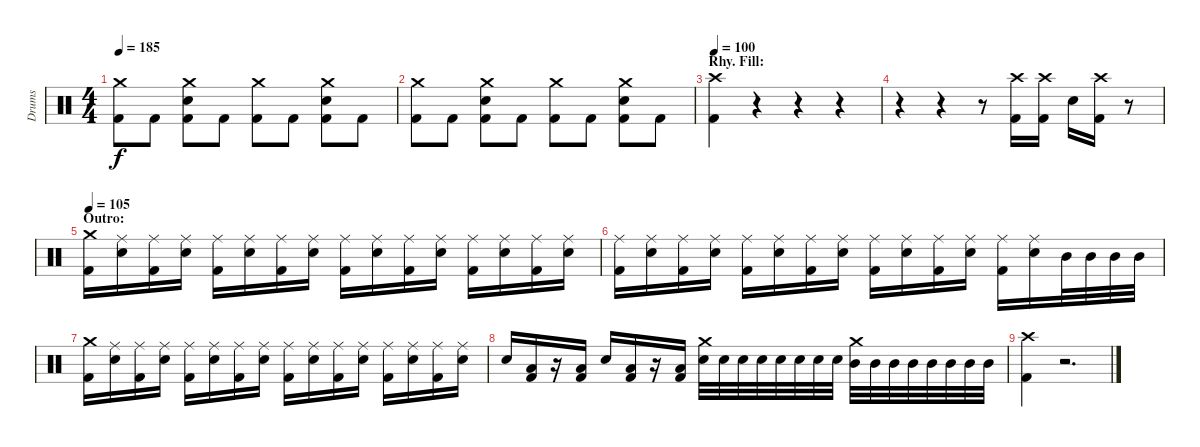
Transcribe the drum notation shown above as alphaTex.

\track ("Drums" "Drums") {instrument percussion}
\staff {score}
\articulation defaults
\ts (4 4)
\tempo 185
\clef neutral
\ks c
("Crash medium (hit)" "Kick (hit) 2").8{dy f} "Kick (hit) 2".8 ("Crash medium (hit)" "Electric Snare (hit)" "Kick (hit) 2").8 "Kick (hit) 2".8 ("Crash medium (hit)" "Kick (hit) 2").8 "Kick (hit) 2".8 ("Crash medium (hit)" "Electric Snare (hit)" "Kick (hit) 2").8 "Kick (hit) 2".8 |
("Crash medium (hit)" "Kick (hit) 2").8 "Kick (hit) 2".8 ("Crash medium (hit)" "Electric Snare (hit)" "Kick (hit) 2").8 "Kick (hit) 2".8 ("Crash medium (hit)" "Kick (hit) 2").8 "Kick (hit) 2".8 ("Crash medium (hit)" "Electric Snare (hit)" "Kick (hit) 2").8 "Kick (hit) 2".8 |
\section ("" "Rhy. Fill:")
\tempo 100
("Crash high (hit)" "Kick (hit) 2").4 r.4 r.4 r.4 |
r.4 r.4 r.8 ("Crash high (hit)" "Kick (hit) 2").16 ("Crash high (hit)" "Kick (hit) 2").16 "Electric Snare (hit)".16 ("Crash high (hit)" "Kick (hit) 2").16 r.8 |
\section ("" "Outro:")
\tempo 105
("Crash medium (hit)" "Kick (hit) 2").16 ("Ride (middle)" "Electric Snare (hit)").16 ("Ride (middle)" "Kick (hit) 2").16 ("Ride (middle)" "Electric Snare (hit)").16 ("Ride (middle)" "Kick (hit) 2").16 ("Ride (middle)" "Electric Snare (hit)").16 ("Ride (middle)" "Kick (hit) 2").16 ("Ride (middle)" "Electric Snare (hit)").16 ("Ride (middle)" "Kick (hit) 2").16 ("Ride (middle)" "Electric Snare (hit)").16 ("Ride (middle)" "Kick (hit) 2").16 ("Ride (middle)" "Electric Snare (hit)").16 ("Ride (middle)" "Kick (hit) 2").16 ("Ride (middle)" "Electric Snare (hit)").16 ("Ride (middle)" "Kick (hit) 2").16 ("Ride (middle)" "Electric Snare (hit)").16 |
("Ride (middle)" "Kick (hit) 2").16 ("Ride (middle)" "Electric Snare (hit)").16 ("Ride (middle)" "Kick (hit) 2").16 ("Ride (middle)" "Electric Snare (hit)").16 ("Ride (middle)" "Kick (hit) 2").16 ("Ride (middle)" "Electric Snare (hit)").16 ("Ride (middle)" "Kick (hit) 2").16 ("Ride (middle)" "Electric Snare (hit)").16 ("Ride (middle)" "Kick (hit) 2").16 ("Ride (middle)" "Electric Snare (hit)").16 ("Ride (middle)" "Kick (hit) 2").16 ("Ride (middle)" "Electric Snare (hit)").16 ("Ride (middle)" "Kick (hit) 2").16 ("Ride (middle)" "Electric Snare (hit)").16 "Mid Tom (hit)".32 "Mid Tom (hit)".32 "Mid Tom (hit)".32 "Mid Tom (hit)".32 |
("Crash medium (hit)" "Kick (hit) 2").16 ("Ride (middle)" "Electric Snare (hit)").16 ("Ride (middle)" "Kick (hit) 2").16 ("Ride (middle)" "Electric Snare (hit)").16 ("Ride (middle)" "Kick (hit) 2").16 ("Ride (middle)" "Electric Snare (hit)").16 ("Ride (middle)" "Kick (hit) 2").16 ("Ride (middle)" "Electric Snare (hit)").16 ("Ride (middle)" "Kick (hit) 2").16 ("Ride (middle)" "Electric Snare (hit)").16 ("Ride (middle)" "Kick (hit) 2").16 ("Ride (middle)" "Electric Snare (hit)").16 ("Ride (middle)" "Kick (hit) 2").16 ("Ride (middle)" "Electric Snare (hit)").16 ("Ride (middle)" "Kick (hit) 2").16 ("Ride (middle)" "Electric Snare (hit)").16 |
"Electric Snare (hit)".16 ("Low Floor Tom (hit)" "Kick (hit) 2").16 r.16 ("Low Floor Tom (hit)" "Kick (hit) 2").16 "Electric Snare (hit)".16 ("Low Floor Tom (hit)" "Kick (hit) 2").16 r.16 ("Low Floor Tom (hit)" "Kick (hit) 2").16 ("Crash medium (hit)" "Electric Snare (hit)").32 "Electric Snare (hit)".32 "Electric Snare (hit)".32 "Electric Snare (hit)".32 "Electric Snare (hit)".32 "Electric Snare (hit)".32 "Electric Snare (hit)".32 "Electric Snare (hit)".32 ("Crash medium (hit)" "Mid Tom (hit)").32 "Mid Tom (hit)".32 "Mid Tom (hit)".32 "Mid Tom (hit)".32 "Mid Tom (hit)".32 "Mid Tom (hit)".32 "Mid Tom (hit)".32 "Mid Tom (hit)".32 |
("Crash high (hit)" "Kick (hit) 2").4 r.2{d}
